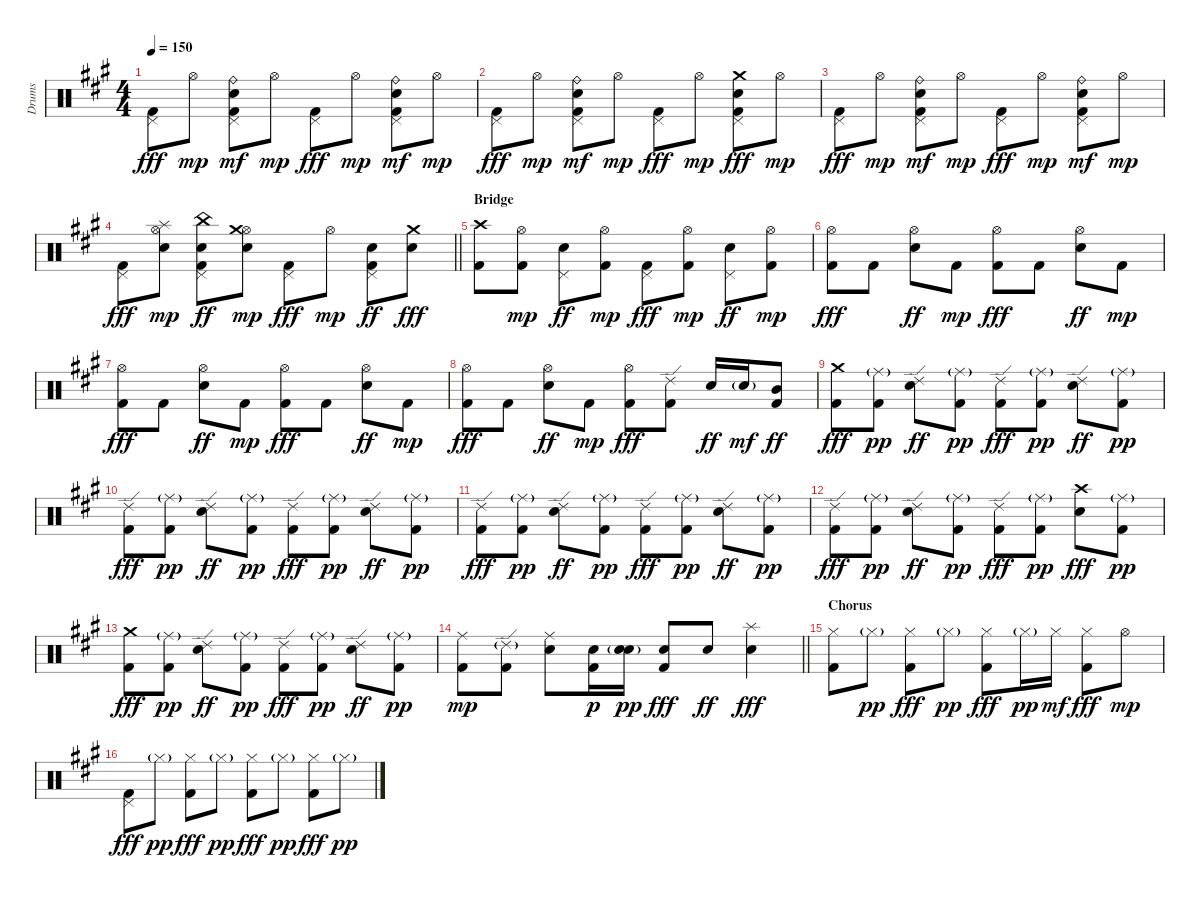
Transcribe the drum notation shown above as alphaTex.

\track ("Drums" "Drums") {instrument percussion}
\staff {score}
\articulation defaults
\ts (4 4)
\tempo 150
\clef neutral
\ks a
("Kick (hit) 2" "Pedal Hi-Hat (hit)").8{dy fff} "Hi-Hat (open)".8{dy mp} ("Kick (hit) 2" "Electric Snare (hit)" "Pedal Hi-Hat (hit)" "Ride (bell)").8{dy mf} "Hi-Hat (open)".8{dy mp} ("Kick (hit) 2" "Pedal Hi-Hat (hit)").8{dy fff} "Hi-Hat (open)".8{dy mp} ("Kick (hit) 2" "Electric Snare (hit)" "Pedal Hi-Hat (hit)" "Ride (bell)").8{dy mf} "Hi-Hat (open)".8{dy mp} |
("Kick (hit) 2" "Pedal Hi-Hat (hit)").8{dy fff} "Hi-Hat (open)".8{dy mp} ("Kick (hit) 2" "Electric Snare (hit)" "Pedal Hi-Hat (hit)" "Ride (bell)").8{dy mf} "Hi-Hat (open)".8{dy mp} ("Kick (hit) 2" "Pedal Hi-Hat (hit)").8{dy fff} "Hi-Hat (open)".8{dy mp} ("Kick (hit) 2" "Electric Snare (hit)" "Pedal Hi-Hat (hit)" "Crash medium (hit)").8{dy fff} "Hi-Hat (open)".8{dy mp} |
("Kick (hit) 2" "Pedal Hi-Hat (hit)").8{dy fff} "Hi-Hat (open)".8{dy mp} ("Kick (hit) 2" "Electric Snare (hit)" "Pedal Hi-Hat (hit)" "Ride (bell)").8{dy mf} "Hi-Hat (open)".8{dy mp} ("Kick (hit) 2" "Pedal Hi-Hat (hit)").8{dy fff} "Hi-Hat (open)".8{dy mp} ("Kick (hit) 2" "Electric Snare (hit)" "Pedal Hi-Hat (hit)" "Ride (bell)").8{dy mf} "Hi-Hat (open)".8{dy mp} |
\barLineRight lightlight
("Kick (hit) 2" "Pedal Hi-Hat (hit)").8{dy fff} ("Electric Snare (hit)" "Hi-Hat (open)" "Splash (hit)").8{dy mp} ("Kick (hit) 2" "Electric Snare (hit)" "Pedal Hi-Hat (hit)" "China (hit)").8{dy ff} ("Electric Snare (hit)" "Hi-Hat (open)" "Crash medium (hit)").8{dy mp} ("Kick (hit) 2" "Pedal Hi-Hat (hit)").8{dy fff} "Hi-Hat (open)".8{dy mp} ("Kick (hit) 2" "Electric Snare (hit)" "Pedal Hi-Hat (hit)").8{dy ff} ("Electric Snare (hit)" "Crash medium (hit)").8{dy fff} |
\section ("" "Bridge")
("Kick (hit) 2" "Crash high (hit)").8 ("Kick (hit) 2" "Hi-Hat (open)").8{dy mp} ("Electric Snare (hit)" "Pedal Hi-Hat (hit)").8{dy ff} ("Kick (hit) 2" "Hi-Hat (open)").8{dy mp} ("Kick (hit) 2" "Pedal Hi-Hat (hit)").8{dy fff} ("Kick (hit) 2" "Hi-Hat (open)").8{dy mp} ("Electric Snare (hit)" "Pedal Hi-Hat (hit)").8{dy ff} ("Kick (hit) 2" "Hi-Hat (open)").8{dy mp} |
("Kick (hit) 2" "Hi-Hat (open)").8{dy fff} "Kick (hit) 2".8 ("Electric Snare (hit)" "Hi-Hat (open)").8{dy ff} "Kick (hit) 2".8{dy mp} ("Kick (hit) 2" "Hi-Hat (open)").8{dy fff} "Kick (hit) 2".8 ("Electric Snare (hit)" "Hi-Hat (open)").8{dy ff} "Kick (hit) 2".8{dy mp} |
("Kick (hit) 2" "Hi-Hat (open)").8{dy fff} "Kick (hit) 2".8 ("Electric Snare (hit)" "Hi-Hat (open)").8{dy ff} "Kick (hit) 2".8{dy mp} ("Kick (hit) 2" "Hi-Hat (open)").8{dy fff} "Kick (hit) 2".8 ("Electric Snare (hit)" "Hi-Hat (open)").8{dy ff} "Kick (hit) 2".8{dy mp} |
("Kick (hit) 2" "Hi-Hat (open)").8{dy fff} "Kick (hit) 2".8 ("Electric Snare (hit)" "Hi-Hat (open)").8{dy ff} "Kick (hit) 2".8{dy mp} ("Kick (hit) 2" "Hi-Hat (open)").8{dy fff} ("Kick (hit) 2" "Ride (edge) 2").8 "Electric Snare (hit)".16{dy ff} "Electric Snare (hit)"{g}.16{dy mf} ("Kick (hit) 2" "Mid Tom (hit)").8{dy ff} |
("Kick (hit) 2" "Crash medium (hit)").8{dy fff} ("Kick (hit) 2" "Ride (middle)"{g}).8{dy pp} ("Electric Snare (hit)" "Ride (edge) 2").8{dy ff} ("Kick (hit) 2" "Ride (middle)"{g}).8{dy pp} ("Kick (hit) 2" "Ride (edge) 2").8{dy fff} ("Kick (hit) 2" "Ride (middle)"{g}).8{dy pp} ("Electric Snare (hit)" "Ride (edge) 2").8{dy ff} ("Kick (hit) 2" "Ride (middle)"{g}).8{dy pp} |
("Kick (hit) 2" "Ride (edge) 2").8{dy fff} ("Kick (hit) 2" "Ride (middle)"{g}).8{dy pp} ("Electric Snare (hit)" "Ride (edge) 2").8{dy ff} ("Kick (hit) 2" "Ride (middle)"{g}).8{dy pp} ("Kick (hit) 2" "Ride (edge) 2").8{dy fff} ("Kick (hit) 2" "Ride (middle)"{g}).8{dy pp} ("Electric Snare (hit)" "Ride (edge) 2").8{dy ff} ("Kick (hit) 2" "Ride (middle)"{g}).8{dy pp} |
("Kick (hit) 2" "Ride (edge) 2").8{dy fff} ("Kick (hit) 2" "Ride (middle)"{g}).8{dy pp} ("Electric Snare (hit)" "Ride (edge) 2").8{dy ff} ("Kick (hit) 2" "Ride (middle)"{g}).8{dy pp} ("Kick (hit) 2" "Ride (edge) 2").8{dy fff} ("Kick (hit) 2" "Ride (middle)"{g}).8{dy pp} ("Electric Snare (hit)" "Ride (edge) 2").8{dy ff} ("Kick (hit) 2" "Ride (middle)"{g}).8{dy pp} |
("Kick (hit) 2" "Ride (edge) 2").8{dy fff} ("Kick (hit) 2" "Ride (middle)"{g}).8{dy pp} ("Electric Snare (hit)" "Ride (edge) 2").8{dy ff} ("Kick (hit) 2" "Ride (middle)"{g}).8{dy pp} ("Kick (hit) 2" "Ride (edge) 2").8{dy fff} ("Kick (hit) 2" "Ride (middle)"{g}).8{dy pp} ("Electric Snare (hit)" "Crash high (hit)").8{dy fff} ("Kick (hit) 2" "Ride (middle)"{g}).8{dy pp} |
("Kick (hit) 2" "Crash medium (hit)").8{dy fff} ("Kick (hit) 2" "Ride (middle)"{g}).8{dy pp} ("Electric Snare (hit)" "Ride (edge) 2").8{dy ff} ("Kick (hit) 2" "Ride (middle)"{g}).8{dy pp} ("Kick (hit) 2" "Ride (edge) 2").8{dy fff} ("Kick (hit) 2" "Ride (middle)"{g}).8{dy pp} ("Electric Snare (hit)" "Ride (edge) 2").8{dy ff} ("Kick (hit) 2" "Ride (middle)"{g}).8{dy pp} |
\barLineRight lightlight
("Kick (hit) 2" "Ride (middle)").8{dy mp} ("Kick (hit) 2" "Ride (edge) 2"{g}).8 ("Electric Snare (hit)" "Ride (middle)").8 ("Kick (hit) 2" "Electric Snare (hit)").16{dy p} ("Electric Snare (hit)" "Electric Snare (hit)"{g}).16{dy pp} ("Kick (hit) 2" "Electric Snare (hit)").8{dy fff} "Electric Snare (hit)".8{dy ff} ("Electric Snare (hit)" "Splash (hit)").4{dy fff} |
\section ("" "Chorus")
("Kick (hit) 2" "Hi-Hat (closed)").8 "Hi-Hat (closed)"{g}.8{dy pp} ("Kick (hit) 2" "Hi-Hat (closed)").8{dy fff} "Hi-Hat (closed)"{g}.8{dy pp} ("Kick (hit) 2" "Hi-Hat (closed)").8{dy fff} "Hi-Hat (closed)"{g}.16{dy pp} "Hi-Hat (closed)".16{dy mf} ("Kick (hit) 2" "Hi-Hat (closed)").8{dy fff} "Hi-Hat (open)".8{dy mp} |
("Kick (hit) 2" "Pedal Hi-Hat (hit)").8{dy fff} "Hi-Hat (closed)"{g}.8{dy pp} ("Kick (hit) 2" "Hi-Hat (closed)").8{dy fff} "Hi-Hat (closed)"{g}.8{dy pp} ("Kick (hit) 2" "Hi-Hat (closed)").8{dy fff} "Hi-Hat (closed)"{g}.8{dy pp} ("Kick (hit) 2" "Hi-Hat (closed)").8{dy fff} "Hi-Hat (closed)"{g}.8{dy pp}
